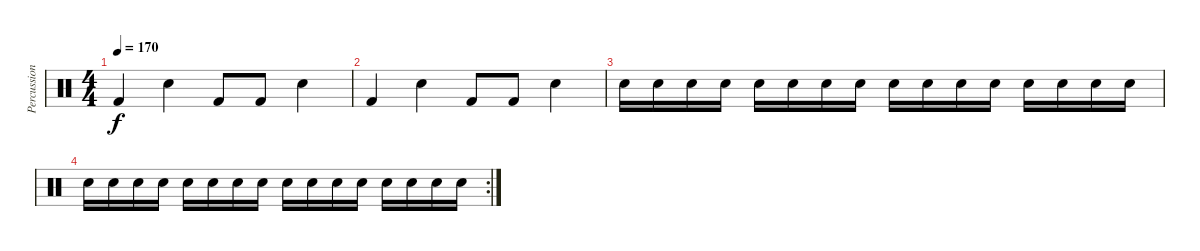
\track ("Percussion" "Percussion") {instrument percussion}
\staff {score}
\articulation defaults
\ts (4 4)
\tempo 170
\clef neutral
\ks c "Kick (hit) 2".4{dy f} "Snare (hit) 2".4 "Kick (hit) 2".8 "Kick (hit) 2".8 "Snare (hit) 2".4
|
"Kick (hit) 2".4 "Snare (hit) 2".4 "Kick (hit) 2".8 "Kick (hit) 2".8 "Snare (hit) 2".4 |
"Snare (hit) 2".16 "Snare (hit) 2".16 "Snare (hit) 2".16 "Snare (hit) 2".16 "Snare (hit) 2".16 "Snare (hit) 2".16 "Snare (hit) 2".16 "Snare (hit) 2".16 "Snare (hit) 2".16 "Snare (hit) 2".16 "Snare (hit) 2".16 "Snare (hit) 2".16 "Snare (hit) 2".16 "Snare (hit) 2".16 "Snare (hit) 2".16 "Snare (hit) 2".16 |
\rc 2 "Snare (hit) 2".16 "Snare (hit) 2".16 "Snare (hit) 2".16 "Snare (hit) 2".16 "Snare (hit) 2".16 "Snare (hit) 2".16 "Snare (hit) 2".16 "Snare (hit) 2".16 "Snare (hit) 2".16 "Snare (hit) 2".16 "Snare (hit) 2".16 "Snare (hit) 2".16 "Snare (hit) 2".16 "Snare (hit) 2".16 "Snare (hit) 2".16 "Snare (hit) 2".16
